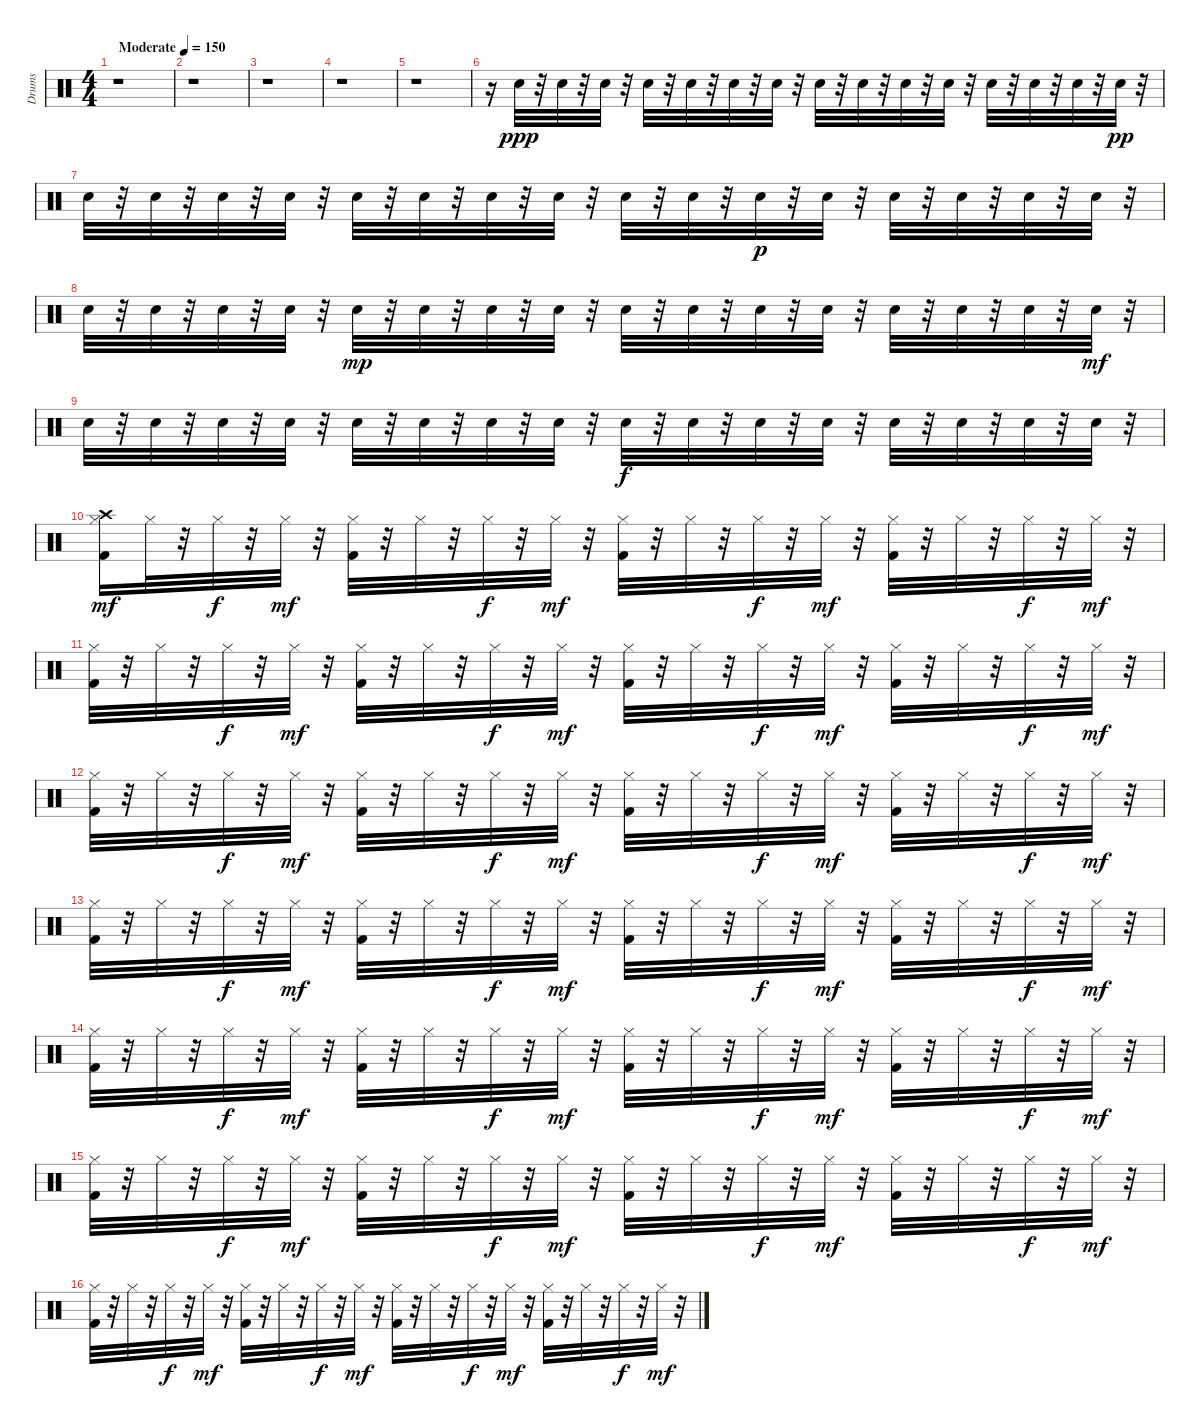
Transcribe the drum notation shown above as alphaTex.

\track ("Drums" "Drums") {instrument percussion}
\staff {score}
\articulation defaults
\ts (4 4)
\tempo (150 "Moderate")
\clef neutral
\ks c
r.1{dy ppp} |
r.1 |
r.1 |
r.1 |
r.1 |
r.16 "Electric Snare (hit)".32 r.32 "Electric Snare (hit)".32 r.32 "Electric Snare (hit)".32 r.32 "Electric Snare (hit)".32 r.32 "Electric Snare (hit)".32 r.32 "Electric Snare (hit)".32 r.32 "Electric Snare (hit)".32 r.32 "Electric Snare (hit)".32 r.32 "Electric Snare (hit)".32 r.32 "Electric Snare (hit)".32 r.32 "Electric Snare (hit)".32 r.32 "Electric Snare (hit)".32 r.32 "Electric Snare (hit)".32 r.32 "Electric Snare (hit)".32 r.32 "Electric Snare (hit)".32{dy pp} r.32 |
"Electric Snare (hit)".32 r.32 "Electric Snare (hit)".32 r.32 "Electric Snare (hit)".32 r.32 "Electric Snare (hit)".32 r.32 "Electric Snare (hit)".32 r.32 "Electric Snare (hit)".32 r.32 "Electric Snare (hit)".32 r.32 "Electric Snare (hit)".32 r.32 "Electric Snare (hit)".32 r.32 "Electric Snare (hit)".32 r.32 "Electric Snare (hit)".32{dy p} r.32 "Electric Snare (hit)".32 r.32 "Electric Snare (hit)".32 r.32 "Electric Snare (hit)".32 r.32 "Electric Snare (hit)".32 r.32 "Electric Snare (hit)".32 r.32 |
"Electric Snare (hit)".32 r.32 "Electric Snare (hit)".32 r.32 "Electric Snare (hit)".32 r.32 "Electric Snare (hit)".32 r.32 "Electric Snare (hit)".32{dy mp} r.32 "Electric Snare (hit)".32 r.32 "Electric Snare (hit)".32 r.32 "Electric Snare (hit)".32 r.32 "Electric Snare (hit)".32 r.32 "Electric Snare (hit)".32 r.32 "Electric Snare (hit)".32 r.32 "Electric Snare (hit)".32 r.32 "Electric Snare (hit)".32 r.32 "Electric Snare (hit)".32 r.32 "Electric Snare (hit)".32 r.32 "Electric Snare (hit)".32{dy mf} r.32 |
"Electric Snare (hit)".32 r.32 "Electric Snare (hit)".32 r.32 "Electric Snare (hit)".32 r.32 "Electric Snare (hit)".32 r.32 "Electric Snare (hit)".32 r.32 "Electric Snare (hit)".32 r.32 "Electric Snare (hit)".32 r.32 "Electric Snare (hit)".32 r.32 "Electric Snare (hit)".32{dy f} r.32 "Electric Snare (hit)".32 r.32 "Electric Snare (hit)".32 r.32 "Electric Snare (hit)".32 r.32 "Electric Snare (hit)".32 r.32 "Electric Snare (hit)".32 r.32 "Electric Snare (hit)".32 r.32 "Electric Snare (hit)".32 r.32 |
("Hi-Hat (closed)" "Kick (hit) 2" "Crash high (hit)").16{dy mf} "Hi-Hat (closed)".32 r.32 "Hi-Hat (closed)".32{dy f} r.32 "Hi-Hat (closed)".32{dy mf} r.32 ("Hi-Hat (closed)" "Kick (hit) 2").32 r.32 "Hi-Hat (closed)".32 r.32 "Hi-Hat (closed)".32{dy f} r.32 "Hi-Hat (closed)".32{dy mf} r.32 ("Hi-Hat (closed)" "Kick (hit) 2").32 r.32 "Hi-Hat (closed)".32 r.32 "Hi-Hat (closed)".32{dy f} r.32 "Hi-Hat (closed)".32{dy mf} r.32 ("Hi-Hat (closed)" "Kick (hit) 2").32 r.32 "Hi-Hat (closed)".32 r.32 "Hi-Hat (closed)".32{dy f} r.32 "Hi-Hat (closed)".32{dy mf} r.32 |
("Hi-Hat (closed)" "Kick (hit) 2").32 r.32 "Hi-Hat (closed)".32 r.32 "Hi-Hat (closed)".32{dy f} r.32 "Hi-Hat (closed)".32{dy mf} r.32 ("Hi-Hat (closed)" "Kick (hit) 2").32 r.32 "Hi-Hat (closed)".32 r.32 "Hi-Hat (closed)".32{dy f} r.32 "Hi-Hat (closed)".32{dy mf} r.32 ("Hi-Hat (closed)" "Kick (hit) 2").32 r.32 "Hi-Hat (closed)".32 r.32 "Hi-Hat (closed)".32{dy f} r.32 "Hi-Hat (closed)".32{dy mf} r.32 ("Hi-Hat (closed)" "Kick (hit) 2").32 r.32 "Hi-Hat (closed)".32 r.32 "Hi-Hat (closed)".32{dy f} r.32 "Hi-Hat (closed)".32{dy mf} r.32 |
("Hi-Hat (closed)" "Kick (hit) 2").32 r.32 "Hi-Hat (closed)".32 r.32 "Hi-Hat (closed)".32{dy f} r.32 "Hi-Hat (closed)".32{dy mf} r.32 ("Hi-Hat (closed)" "Kick (hit) 2").32 r.32 "Hi-Hat (closed)".32 r.32 "Hi-Hat (closed)".32{dy f} r.32 "Hi-Hat (closed)".32{dy mf} r.32 ("Hi-Hat (closed)" "Kick (hit) 2").32 r.32 "Hi-Hat (closed)".32 r.32 "Hi-Hat (closed)".32{dy f} r.32 "Hi-Hat (closed)".32{dy mf} r.32 ("Hi-Hat (closed)" "Kick (hit) 2").32 r.32 "Hi-Hat (closed)".32 r.32 "Hi-Hat (closed)".32{dy f} r.32 "Hi-Hat (closed)".32{dy mf} r.32 |
("Hi-Hat (closed)" "Kick (hit) 2").32 r.32 "Hi-Hat (closed)".32 r.32 "Hi-Hat (closed)".32{dy f} r.32 "Hi-Hat (closed)".32{dy mf} r.32 ("Hi-Hat (closed)" "Kick (hit) 2").32 r.32 "Hi-Hat (closed)".32 r.32 "Hi-Hat (closed)".32{dy f} r.32 "Hi-Hat (closed)".32{dy mf} r.32 ("Hi-Hat (closed)" "Kick (hit) 2").32 r.32 "Hi-Hat (closed)".32 r.32 "Hi-Hat (closed)".32{dy f} r.32 "Hi-Hat (closed)".32{dy mf} r.32 ("Hi-Hat (closed)" "Kick (hit) 2").32 r.32 "Hi-Hat (closed)".32 r.32 "Hi-Hat (closed)".32{dy f} r.32 "Hi-Hat (closed)".32{dy mf} r.32 |
("Hi-Hat (closed)" "Kick (hit) 2").32 r.32 "Hi-Hat (closed)".32 r.32 "Hi-Hat (closed)".32{dy f} r.32 "Hi-Hat (closed)".32{dy mf} r.32 ("Hi-Hat (closed)" "Kick (hit) 2").32 r.32 "Hi-Hat (closed)".32 r.32 "Hi-Hat (closed)".32{dy f} r.32 "Hi-Hat (closed)".32{dy mf} r.32 ("Hi-Hat (closed)" "Kick (hit) 2").32 r.32 "Hi-Hat (closed)".32 r.32 "Hi-Hat (closed)".32{dy f} r.32 "Hi-Hat (closed)".32{dy mf} r.32 ("Hi-Hat (closed)" "Kick (hit) 2").32 r.32 "Hi-Hat (closed)".32 r.32 "Hi-Hat (closed)".32{dy f} r.32 "Hi-Hat (closed)".32{dy mf} r.32 |
("Hi-Hat (closed)" "Kick (hit) 2").32 r.32 "Hi-Hat (closed)".32 r.32 "Hi-Hat (closed)".32{dy f} r.32 "Hi-Hat (closed)".32{dy mf} r.32 ("Hi-Hat (closed)" "Kick (hit) 2").32 r.32 "Hi-Hat (closed)".32 r.32 "Hi-Hat (closed)".32{dy f} r.32 "Hi-Hat (closed)".32{dy mf} r.32 ("Hi-Hat (closed)" "Kick (hit) 2").32 r.32 "Hi-Hat (closed)".32 r.32 "Hi-Hat (closed)".32{dy f} r.32 "Hi-Hat (closed)".32{dy mf} r.32 ("Hi-Hat (closed)" "Kick (hit) 2").32 r.32 "Hi-Hat (closed)".32 r.32 "Hi-Hat (closed)".32{dy f} r.32 "Hi-Hat (closed)".32{dy mf} r.32 |
("Hi-Hat (closed)" "Kick (hit) 2").32 r.32 "Hi-Hat (closed)".32 r.32 "Hi-Hat (closed)".32{dy f} r.32 "Hi-Hat (closed)".32{dy mf} r.32 ("Hi-Hat (closed)" "Kick (hit) 2").32 r.32 "Hi-Hat (closed)".32 r.32 "Hi-Hat (closed)".32{dy f} r.32 "Hi-Hat (closed)".32{dy mf} r.32 ("Hi-Hat (closed)" "Kick (hit) 2").32 r.32 "Hi-Hat (closed)".32 r.32 "Hi-Hat (closed)".32{dy f} r.32 "Hi-Hat (closed)".32{dy mf} r.32 ("Hi-Hat (closed)" "Kick (hit) 2").32 r.32 "Hi-Hat (closed)".32 r.32 "Hi-Hat (closed)".32{dy f} r.32 "Hi-Hat (closed)".32{dy mf} r.32
